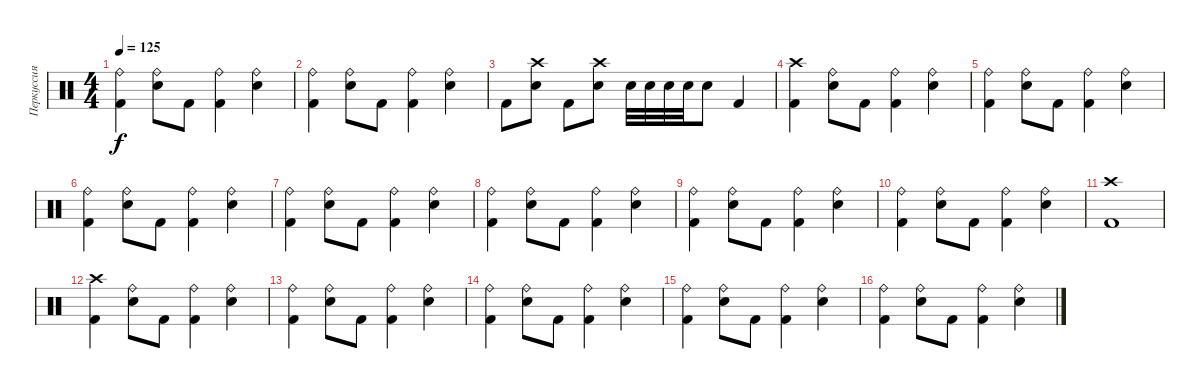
\track ("Перкуссия" "Перкуссия") {instrument percussion}
\staff {score}
\articulation defaults
\ts (4 4)
\tempo 125
\clef neutral
\ks c
("Ride (bell)" "Kick (hit) 2").4{dy f} ("Ride (bell)" "Snare (hit) 2").8 "Kick (hit) 2".8 ("Ride (bell)" "Kick (hit) 2").4 ("Ride (bell)" "Snare (hit) 2").4 |
("Ride (bell)" "Kick (hit) 2").4 ("Ride (bell)" "Snare (hit) 2").8 "Kick (hit) 2".8 ("Ride (bell)" "Kick (hit) 2").4 ("Ride (bell)" "Snare (hit) 2").4 |
"Kick (hit) 2".8 ("Crash high (hit)" "Snare (hit) 2").8 "Kick (hit) 2".8 ("Crash high (hit)" "Snare (hit) 2").8 "Snare (hit) 2".32 "Snare (hit) 2".32 "Snare (hit) 2".32 "Snare (hit) 2".32 "Snare (hit) 2".8 "Kick (hit) 2".4 |
("Crash high (hit)" "Kick (hit) 2").4 ("Ride (bell)" "Snare (hit) 2").8 "Kick (hit) 2".8 ("Ride (bell)" "Kick (hit) 2").4 ("Ride (bell)" "Snare (hit) 2").4 |
("Ride (bell)" "Kick (hit) 2").4 ("Ride (bell)" "Snare (hit) 2").8 "Kick (hit) 2".8 ("Ride (bell)" "Kick (hit) 2").4 ("Ride (bell)" "Snare (hit) 2").4 |
("Ride (bell)" "Kick (hit) 2").4 ("Ride (bell)" "Snare (hit) 2").8 "Kick (hit) 2".8 ("Ride (bell)" "Kick (hit) 2").4 ("Ride (bell)" "Snare (hit) 2").4 |
("Ride (bell)" "Kick (hit) 2").4 ("Ride (bell)" "Snare (hit) 2").8 "Kick (hit) 2".8 ("Ride (bell)" "Kick (hit) 2").4 ("Ride (bell)" "Snare (hit) 2").4 |
("Ride (bell)" "Kick (hit) 2").4 ("Ride (bell)" "Snare (hit) 2").8 "Kick (hit) 2".8 ("Ride (bell)" "Kick (hit) 2").4 ("Ride (bell)" "Snare (hit) 2").4 |
("Ride (bell)" "Kick (hit) 2").4 ("Ride (bell)" "Snare (hit) 2").8 "Kick (hit) 2".8 ("Ride (bell)" "Kick (hit) 2").4 ("Ride (bell)" "Snare (hit) 2").4 |
("Ride (bell)" "Kick (hit) 2").4 ("Ride (bell)" "Snare (hit) 2").8 "Kick (hit) 2".8 ("Ride (bell)" "Kick (hit) 2").4 ("Ride (bell)" "Snare (hit) 2").4 |
("Crash high (hit)" "Kick (hit) 2").1 |
("Crash high (hit)" "Kick (hit) 2").4 ("Ride (bell)" "Snare (hit) 2").8 "Kick (hit) 2".8 ("Ride (bell)" "Kick (hit) 2").4 ("Ride (bell)" "Snare (hit) 2").4 |
("Ride (bell)" "Kick (hit) 2").4 ("Ride (bell)" "Snare (hit) 2").8 "Kick (hit) 2".8 ("Ride (bell)" "Kick (hit) 2").4 ("Ride (bell)" "Snare (hit) 2").4 |
("Ride (bell)" "Kick (hit) 2").4 ("Ride (bell)" "Snare (hit) 2").8 "Kick (hit) 2".8 ("Ride (bell)" "Kick (hit) 2").4 ("Ride (bell)" "Snare (hit) 2").4 |
("Ride (bell)" "Kick (hit) 2").4 ("Ride (bell)" "Snare (hit) 2").8 "Kick (hit) 2".8 ("Ride (bell)" "Kick (hit) 2").4 ("Ride (bell)" "Snare (hit) 2").4 |
("Ride (bell)" "Kick (hit) 2").4 ("Ride (bell)" "Snare (hit) 2").8 "Kick (hit) 2".8 ("Ride (bell)" "Kick (hit) 2").4 ("Ride (bell)" "Snare (hit) 2").4
